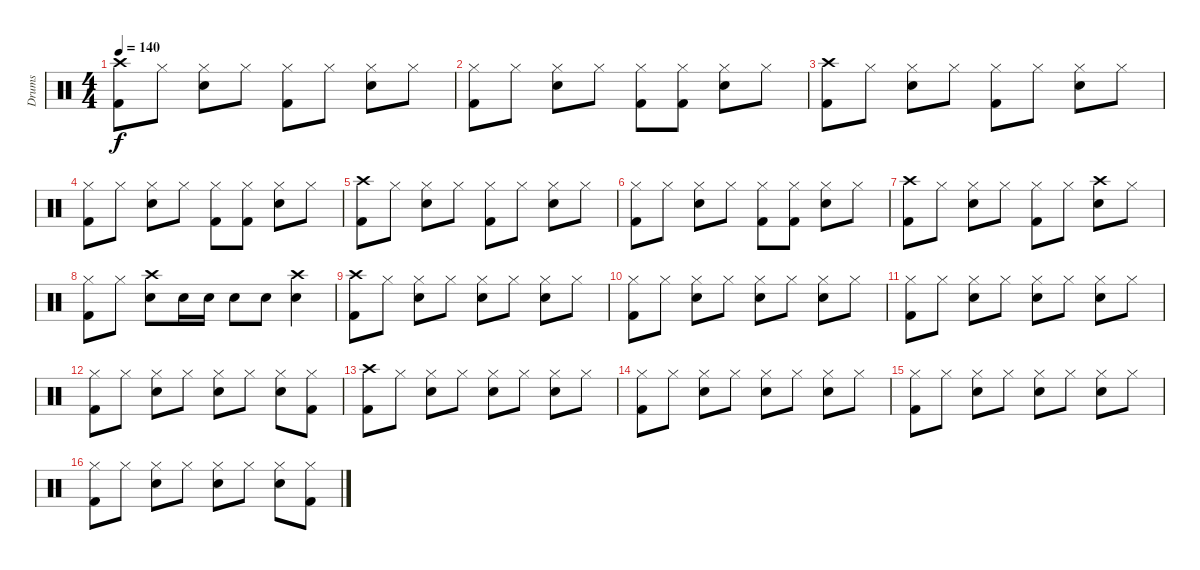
\track ("Drums" "Drums") {instrument percussion}
\staff {score}
\articulation defaults
\ts (4 4)
\tempo 140
\clef neutral
\ks c
("Crash high (hit)" "Kick (hit) 2").8{dy f} "Hi-Hat (closed)".8 ("Hi-Hat (closed)" "Snare (hit) 2").8 "Hi-Hat (closed)".8 ("Hi-Hat (closed)" "Kick (hit) 2").8 "Hi-Hat (closed)".8 ("Hi-Hat (closed)" "Snare (hit) 2").8 "Hi-Hat (closed)".8 |
("Hi-Hat (closed)" "Kick (hit) 2").8 "Hi-Hat (closed)".8 ("Hi-Hat (closed)" "Snare (hit) 2").8 "Hi-Hat (closed)".8 ("Hi-Hat (closed)" "Kick (hit) 2").8 ("Hi-Hat (closed)" "Kick (hit) 2").8 ("Hi-Hat (closed)" "Snare (hit) 2").8 "Hi-Hat (closed)".8 |
("Crash high (hit)" "Kick (hit) 2").8 "Hi-Hat (closed)".8 ("Hi-Hat (closed)" "Snare (hit) 2").8 "Hi-Hat (closed)".8 ("Hi-Hat (closed)" "Kick (hit) 2").8 "Hi-Hat (closed)".8 ("Hi-Hat (closed)" "Snare (hit) 2").8 "Hi-Hat (closed)".8 |
("Hi-Hat (closed)" "Kick (hit) 2").8 "Hi-Hat (closed)".8 ("Hi-Hat (closed)" "Snare (hit) 2").8 "Hi-Hat (closed)".8 ("Hi-Hat (closed)" "Kick (hit) 2").8 ("Hi-Hat (closed)" "Kick (hit) 2").8 ("Hi-Hat (closed)" "Snare (hit) 2").8 "Hi-Hat (closed)".8 |
("Crash high (hit)" "Kick (hit) 2").8 "Hi-Hat (closed)".8 ("Hi-Hat (closed)" "Snare (hit) 2").8 "Hi-Hat (closed)".8 ("Hi-Hat (closed)" "Kick (hit) 2").8 "Hi-Hat (closed)".8 ("Hi-Hat (closed)" "Snare (hit) 2").8 "Hi-Hat (closed)".8 |
("Hi-Hat (closed)" "Kick (hit) 2").8 "Hi-Hat (closed)".8 ("Hi-Hat (closed)" "Snare (hit) 2").8 "Hi-Hat (closed)".8 ("Hi-Hat (closed)" "Kick (hit) 2").8 ("Hi-Hat (closed)" "Kick (hit) 2").8 ("Hi-Hat (closed)" "Snare (hit) 2").8 "Hi-Hat (closed)".8 |
("Crash high (hit)" "Kick (hit) 2").8 "Hi-Hat (closed)".8 ("Hi-Hat (closed)" "Snare (hit) 2").8 "Hi-Hat (closed)".8 ("Hi-Hat (closed)" "Kick (hit) 2").8 "Hi-Hat (closed)".8 ("Crash high (hit)" "Snare (hit) 2").8 "Hi-Hat (closed)".8 |
("Hi-Hat (closed)" "Kick (hit) 2").8 "Hi-Hat (closed)".8 ("Crash high (hit)" "Snare (hit) 2").8 "Snare (hit) 2".16 "Snare (hit) 2".16 "Snare (hit) 2".8 "Snare (hit) 2".8 ("Crash high (hit)" "Snare (hit) 2").4 |
("Crash high (hit)" "Kick (hit) 2").8 "Hi-Hat (closed)".8 ("Hi-Hat (closed)" "Snare (hit) 2").8 "Hi-Hat (closed)".8 ("Hi-Hat (closed)" "Snare (hit) 2").8 "Hi-Hat (closed)".8 ("Hi-Hat (closed)" "Snare (hit) 2").8 "Hi-Hat (closed)".8 |
("Hi-Hat (closed)" "Kick (hit) 2").8 "Hi-Hat (closed)".8 ("Hi-Hat (closed)" "Snare (hit) 2").8 "Hi-Hat (closed)".8 ("Hi-Hat (closed)" "Snare (hit) 2").8 "Hi-Hat (closed)".8 ("Hi-Hat (closed)" "Snare (hit) 2").8 "Hi-Hat (closed)".8 |
("Hi-Hat (closed)" "Kick (hit) 2").8 "Hi-Hat (closed)".8 ("Hi-Hat (closed)" "Snare (hit) 2").8 "Hi-Hat (closed)".8 ("Hi-Hat (closed)" "Snare (hit) 2").8 "Hi-Hat (closed)".8 ("Hi-Hat (closed)" "Snare (hit) 2").8 "Hi-Hat (closed)".8 |
("Hi-Hat (closed)" "Kick (hit) 2").8 "Hi-Hat (closed)".8 ("Hi-Hat (closed)" "Snare (hit) 2").8 "Hi-Hat (closed)".8 ("Hi-Hat (closed)" "Snare (hit) 2").8 "Hi-Hat (closed)".8 ("Hi-Hat (closed)" "Snare (hit) 2").8 ("Hi-Hat (closed)" "Kick (hit) 2").8 |
("Crash high (hit)" "Kick (hit) 2").8 "Hi-Hat (closed)".8 ("Hi-Hat (closed)" "Snare (hit) 2").8 "Hi-Hat (closed)".8 ("Hi-Hat (closed)" "Snare (hit) 2").8 "Hi-Hat (closed)".8 ("Hi-Hat (closed)" "Snare (hit) 2").8 "Hi-Hat (closed)".8 |
("Hi-Hat (closed)" "Kick (hit) 2").8 "Hi-Hat (closed)".8 ("Hi-Hat (closed)" "Snare (hit) 2").8 "Hi-Hat (closed)".8 ("Hi-Hat (closed)" "Snare (hit) 2").8 "Hi-Hat (closed)".8 ("Hi-Hat (closed)" "Snare (hit) 2").8 "Hi-Hat (closed)".8 |
("Hi-Hat (closed)" "Kick (hit) 2").8 "Hi-Hat (closed)".8 ("Hi-Hat (closed)" "Snare (hit) 2").8 "Hi-Hat (closed)".8 ("Hi-Hat (closed)" "Snare (hit) 2").8 "Hi-Hat (closed)".8 ("Hi-Hat (closed)" "Snare (hit) 2").8 "Hi-Hat (closed)".8 |
("Hi-Hat (closed)" "Kick (hit) 2").8 "Hi-Hat (closed)".8 ("Hi-Hat (closed)" "Snare (hit) 2").8 "Hi-Hat (closed)".8 ("Hi-Hat (closed)" "Snare (hit) 2").8 "Hi-Hat (closed)".8 ("Hi-Hat (closed)" "Snare (hit) 2").8 ("Hi-Hat (closed)" "Kick (hit) 2").8
